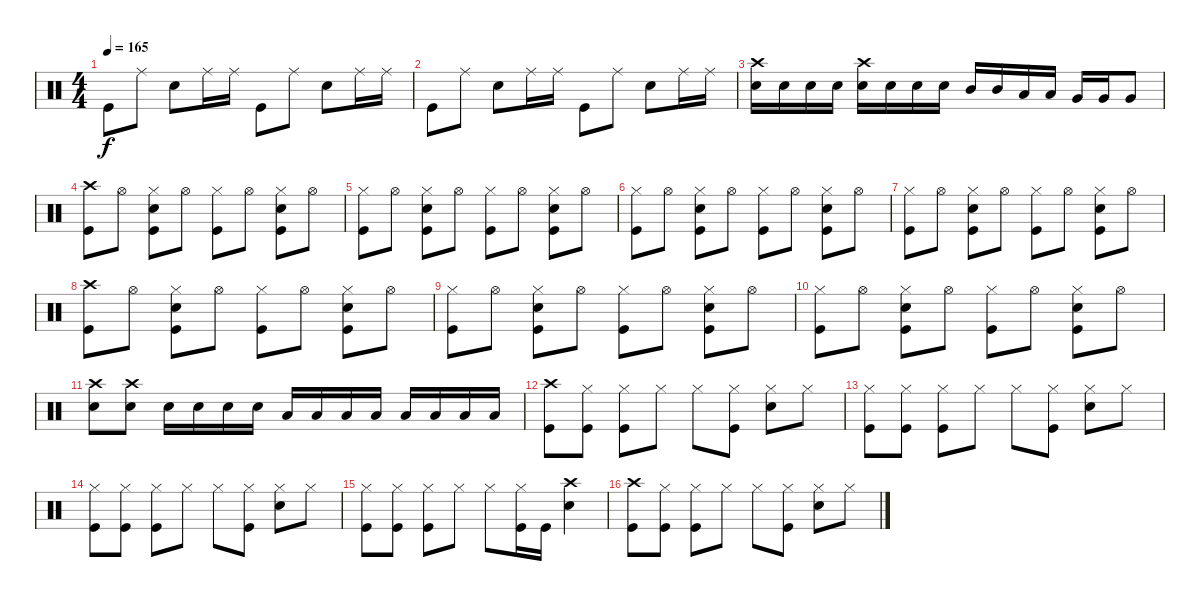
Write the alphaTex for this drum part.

\track "" {instrument percussion}
\staff {score}
\articulation defaults
\ts (4 4)
\tempo 165
\clef neutral
\ks c "Kick (hit)".8{dy f} "Ride (middle)".8 "Electric Snare (hit)".8 "Ride (middle)".16 "Ride (middle)".16 "Kick (hit)".8 "Ride (middle)".8 "Electric Snare (hit)".8 "Ride (middle)".16 "Ride (middle)".16
|
"Kick (hit)".8 "Ride (middle)".8 "Electric Snare (hit)".8 "Ride (middle)".16 "Ride (middle)".16 "Kick (hit)".8 "Ride (middle)".8 "Electric Snare (hit)".8 "Ride (middle)".16 "Ride (middle)".16 |
("Crash high (hit)" "Electric Snare (hit)").16 "Electric Snare (hit)".16 "Electric Snare (hit)".16 "Electric Snare (hit)".16 ("Crash high (hit)" "Electric Snare (hit)").16 "Electric Snare (hit)".16 "Electric Snare (hit)".16 "Electric Snare (hit)".16 "Mid Tom (hit)".16 "Mid Tom (hit)".16 "Low Tom (hit)".16 "Low Tom (hit)".16 "Very Low Tom (hit)".16 "Very Low Tom (hit)".16 "Very Low Tom (hit)".8 |
("Crash high (hit)" "Kick (hit)").8 "Hi-Hat (open)".8 ("Hi-Hat (closed)" "Electric Snare (hit)" "Kick (hit)").8 "Hi-Hat (open)".8 ("Hi-Hat (closed)" "Kick (hit)").8 "Hi-Hat (open)".8 ("Hi-Hat (closed)" "Electric Snare (hit)" "Kick (hit)").8 "Hi-Hat (open)".8 |
("Hi-Hat (closed)" "Kick (hit)").8 "Hi-Hat (open)".8 ("Hi-Hat (closed)" "Electric Snare (hit)" "Kick (hit)").8 "Hi-Hat (open)".8 ("Hi-Hat (closed)" "Kick (hit)").8 "Hi-Hat (open)".8 ("Hi-Hat (closed)" "Electric Snare (hit)" "Kick (hit)").8 "Hi-Hat (open)".8 |
("Hi-Hat (closed)" "Kick (hit)").8 "Hi-Hat (open)".8 ("Hi-Hat (closed)" "Electric Snare (hit)" "Kick (hit)").8 "Hi-Hat (open)".8 ("Hi-Hat (closed)" "Kick (hit)").8 "Hi-Hat (open)".8 ("Hi-Hat (closed)" "Electric Snare (hit)" "Kick (hit)").8 "Hi-Hat (open)".8 |
("Hi-Hat (closed)" "Kick (hit)").8 "Hi-Hat (open)".8 ("Hi-Hat (closed)" "Electric Snare (hit)" "Kick (hit)").8 "Hi-Hat (open)".8 ("Hi-Hat (closed)" "Kick (hit)").8 "Hi-Hat (open)".8 ("Hi-Hat (closed)" "Electric Snare (hit)" "Kick (hit)").8 "Hi-Hat (open)".8 |
("Crash high (hit)" "Kick (hit)").8 "Hi-Hat (open)".8 ("Hi-Hat (closed)" "Electric Snare (hit)" "Kick (hit)").8 "Hi-Hat (open)".8 ("Hi-Hat (closed)" "Kick (hit)").8 "Hi-Hat (open)".8 ("Hi-Hat (closed)" "Electric Snare (hit)" "Kick (hit)").8 "Hi-Hat (open)".8 |
("Hi-Hat (closed)" "Kick (hit)").8 "Hi-Hat (open)".8 ("Hi-Hat (closed)" "Electric Snare (hit)" "Kick (hit)").8 "Hi-Hat (open)".8 ("Hi-Hat (closed)" "Kick (hit)").8 "Hi-Hat (open)".8 ("Hi-Hat (closed)" "Electric Snare (hit)" "Kick (hit)").8 "Hi-Hat (open)".8 |
("Hi-Hat (closed)" "Kick (hit)").8 "Hi-Hat (open)".8 ("Hi-Hat (closed)" "Electric Snare (hit)" "Kick (hit)").8 "Hi-Hat (open)".8 ("Hi-Hat (closed)" "Kick (hit)").8 "Hi-Hat (open)".8 ("Hi-Hat (closed)" "Electric Snare (hit)" "Kick (hit)").8 "Hi-Hat (open)".8 |
("Crash high (hit)" "Electric Snare (hit)").8 ("Crash high (hit)" "Electric Snare (hit)").8 "Electric Snare (hit)".16 "Electric Snare (hit)".16 "Electric Snare (hit)".16 "Electric Snare (hit)".16 "Low Tom (hit)".16 "Low Tom (hit)".16 "Low Tom (hit)".16 "Low Tom (hit)".16 "Low Floor Tom (hit)".16 "Low Floor Tom (hit)".16 "Low Floor Tom (hit)".16 "Low Floor Tom (hit)".16 |
("Crash high (hit)" "Kick (hit)").8 ("Hi-Hat (closed)" "Kick (hit)").8 ("Hi-Hat (closed)" "Kick (hit)").8 "Hi-Hat (closed)".8 "Hi-Hat (closed)".8 ("Hi-Hat (closed)" "Kick (hit)").8 ("Hi-Hat (closed)" "Electric Snare (hit)").8 "Hi-Hat (closed)".8 |
("Hi-Hat (closed)" "Kick (hit)").8 ("Hi-Hat (closed)" "Kick (hit)").8 ("Hi-Hat (closed)" "Kick (hit)").8 "Hi-Hat (closed)".8 "Hi-Hat (closed)".8 ("Hi-Hat (closed)" "Kick (hit)").8 ("Hi-Hat (closed)" "Electric Snare (hit)").8 "Hi-Hat (closed)".8 |
("Hi-Hat (closed)" "Kick (hit)").8 ("Hi-Hat (closed)" "Kick (hit)").8 ("Hi-Hat (closed)" "Kick (hit)").8 "Hi-Hat (closed)".8 "Hi-Hat (closed)".8 ("Hi-Hat (closed)" "Kick (hit)").8 ("Hi-Hat (closed)" "Electric Snare (hit)").8 "Hi-Hat (closed)".8 |
("Hi-Hat (closed)" "Kick (hit)").8 ("Hi-Hat (closed)" "Kick (hit)").8 ("Hi-Hat (closed)" "Kick (hit)").8 "Hi-Hat (closed)".8 "Hi-Hat (closed)".8 ("Hi-Hat (closed)" "Kick (hit)").16 "Kick (hit)".16 ("Crash high (hit)" "Electric Snare (hit)").4 |
("Crash high (hit)" "Kick (hit)").8 ("Hi-Hat (closed)" "Kick (hit)").8 ("Hi-Hat (closed)" "Kick (hit)").8 "Hi-Hat (closed)".8 "Hi-Hat (closed)".8 ("Hi-Hat (closed)" "Kick (hit)").8 ("Hi-Hat (closed)" "Electric Snare (hit)").8 "Hi-Hat (closed)".8
